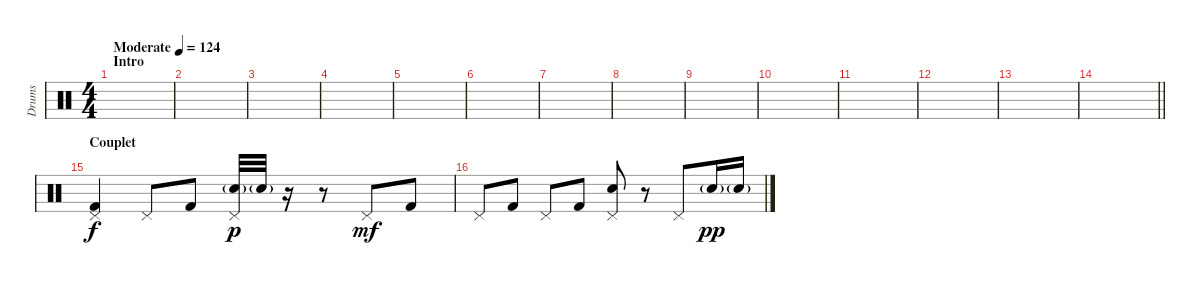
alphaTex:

\track ("Drums" "Drums") {instrument percussion}
\staff {score}
\articulation defaults
\ts (4 4)
\section ("" "Intro")
\tempo (124 "Moderate")
\clef neutral
\ks c
|
|
|
|
|
|
|
|
|
|
|
|
|
\barLineRight lightlight
|
\section ("" "Couplet")
("Pedal Hi-Hat (hit)" "Kick (hit) 2").4 "Pedal Hi-Hat (hit)".8 "Kick (hit) 2".8 ("Pedal Hi-Hat (hit)" "Electric Snare (hit)"{g}).32{dy p} "Electric Snare (hit)"{g}.32 r.16 r.8 "Pedal Hi-Hat (hit)".8{dy mf} "Kick (hit) 2".8 |
"Pedal Hi-Hat (hit)".8 "Kick (hit) 2".8 "Pedal Hi-Hat (hit)".8 "Kick (hit) 2".8 ("Pedal Hi-Hat (hit)" "Electric Snare (hit)").8 r.8 "Pedal Hi-Hat (hit)".8 "Electric Snare (hit)"{g}.16{dy pp} "Electric Snare (hit)"{g}.16
